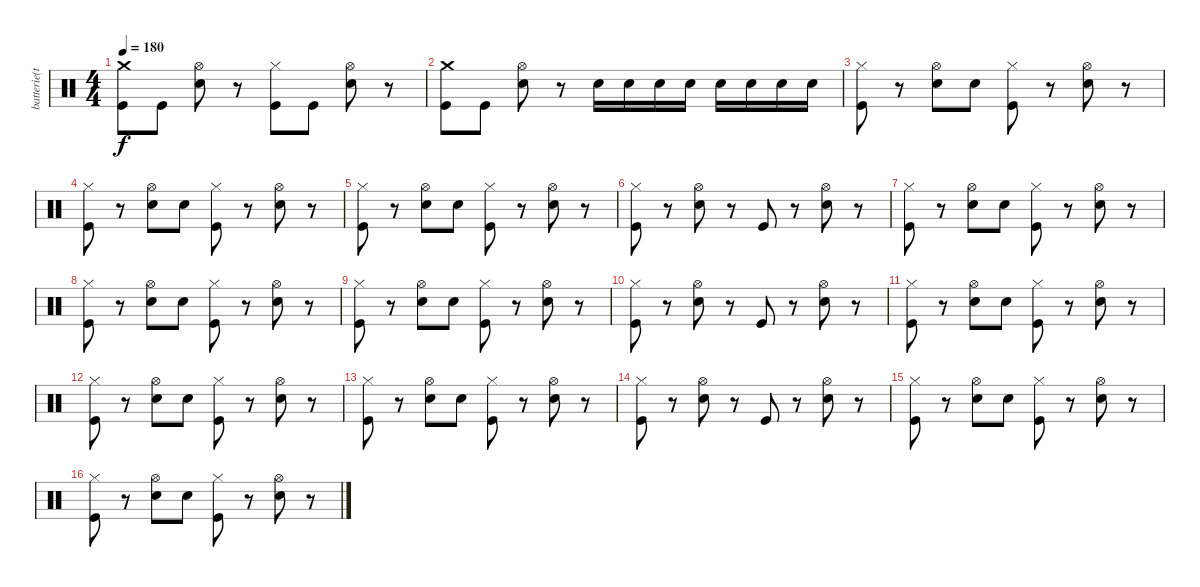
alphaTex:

\track ("batterie(topper)" "batterie(t") {instrument percussion}
\staff {score}
\articulation defaults
\ts (4 4)
\tempo 180
\clef neutral
\ks c
("Crash medium (hit)" "Kick (hit)").8{dy f} "Kick (hit)".8 ("Hi-Hat (open)" "Snare (hit) 2").8 r.8 ("Hi-Hat (closed)" "Kick (hit)").8 "Kick (hit)".8 ("Hi-Hat (open)" "Snare (hit) 2").8 r.8 |
("Crash medium (hit)" "Kick (hit)").8 "Kick (hit)".8 ("Hi-Hat (open)" "Snare (hit) 2").8 r.8 "Snare (hit) 2".16 "Snare (hit) 2".16 "Snare (hit) 2".16 "Snare (hit) 2".16 "Snare (hit) 2".16 "Snare (hit) 2".16 "Snare (hit) 2".16 "Snare (hit) 2".16 |
("Hi-Hat (closed)" "Kick (hit)").8 r.8 ("Hi-Hat (open)" "Snare (hit) 2").8 "Snare (hit) 2".8 ("Hi-Hat (closed)" "Kick (hit)").8 r.8 ("Hi-Hat (open)" "Snare (hit) 2").8 r.8 |
("Hi-Hat (closed)" "Kick (hit)").8 r.8 ("Hi-Hat (open)" "Snare (hit) 2").8 "Snare (hit) 2".8 ("Hi-Hat (closed)" "Kick (hit)").8 r.8 ("Hi-Hat (open)" "Snare (hit) 2").8 r.8 |
("Hi-Hat (closed)" "Kick (hit)").8 r.8 ("Hi-Hat (open)" "Snare (hit) 2").8 "Snare (hit) 2".8 ("Hi-Hat (closed)" "Kick (hit)").8 r.8 ("Hi-Hat (open)" "Snare (hit) 2").8 r.8 |
("Hi-Hat (closed)" "Kick (hit)").8 r.8 ("Hi-Hat (open)" "Snare (hit) 2").8 r.8 "Kick (hit)".8 r.8 ("Hi-Hat (open)" "Snare (hit) 2").8 r.8 |
("Hi-Hat (closed)" "Kick (hit)").8 r.8 ("Hi-Hat (open)" "Snare (hit) 2").8 "Snare (hit) 2".8 ("Hi-Hat (closed)" "Kick (hit)").8 r.8 ("Hi-Hat (open)" "Snare (hit) 2").8 r.8 |
("Hi-Hat (closed)" "Kick (hit)").8 r.8 ("Hi-Hat (open)" "Snare (hit) 2").8 "Snare (hit) 2".8 ("Hi-Hat (closed)" "Kick (hit)").8 r.8 ("Hi-Hat (open)" "Snare (hit) 2").8 r.8 |
("Hi-Hat (closed)" "Kick (hit)").8 r.8 ("Hi-Hat (open)" "Snare (hit) 2").8 "Snare (hit) 2".8 ("Hi-Hat (closed)" "Kick (hit)").8 r.8 ("Hi-Hat (open)" "Snare (hit) 2").8 r.8 |
("Hi-Hat (closed)" "Kick (hit)").8 r.8 ("Hi-Hat (open)" "Snare (hit) 2").8 r.8 "Kick (hit)".8 r.8 ("Hi-Hat (open)" "Snare (hit) 2").8 r.8 |
("Hi-Hat (closed)" "Kick (hit)").8 r.8 ("Hi-Hat (open)" "Snare (hit) 2").8 "Snare (hit) 2".8 ("Hi-Hat (closed)" "Kick (hit)").8 r.8 ("Hi-Hat (open)" "Snare (hit) 2").8 r.8 |
("Hi-Hat (closed)" "Kick (hit)").8 r.8 ("Hi-Hat (open)" "Snare (hit) 2").8 "Snare (hit) 2".8 ("Hi-Hat (closed)" "Kick (hit)").8 r.8 ("Hi-Hat (open)" "Snare (hit) 2").8 r.8 |
("Hi-Hat (closed)" "Kick (hit)").8 r.8 ("Hi-Hat (open)" "Snare (hit) 2").8 "Snare (hit) 2".8 ("Hi-Hat (closed)" "Kick (hit)").8 r.8 ("Hi-Hat (open)" "Snare (hit) 2").8 r.8 |
("Hi-Hat (closed)" "Kick (hit)").8 r.8 ("Hi-Hat (open)" "Snare (hit) 2").8 r.8 "Kick (hit)".8 r.8 ("Hi-Hat (open)" "Snare (hit) 2").8 r.8 |
("Hi-Hat (closed)" "Kick (hit)").8 r.8 ("Hi-Hat (open)" "Snare (hit) 2").8 "Snare (hit) 2".8 ("Hi-Hat (closed)" "Kick (hit)").8 r.8 ("Hi-Hat (open)" "Snare (hit) 2").8 r.8 |
("Hi-Hat (closed)" "Kick (hit)").8 r.8 ("Hi-Hat (open)" "Snare (hit) 2").8 "Snare (hit) 2".8 ("Hi-Hat (closed)" "Kick (hit)").8 r.8 ("Hi-Hat (open)" "Snare (hit) 2").8 r.8
